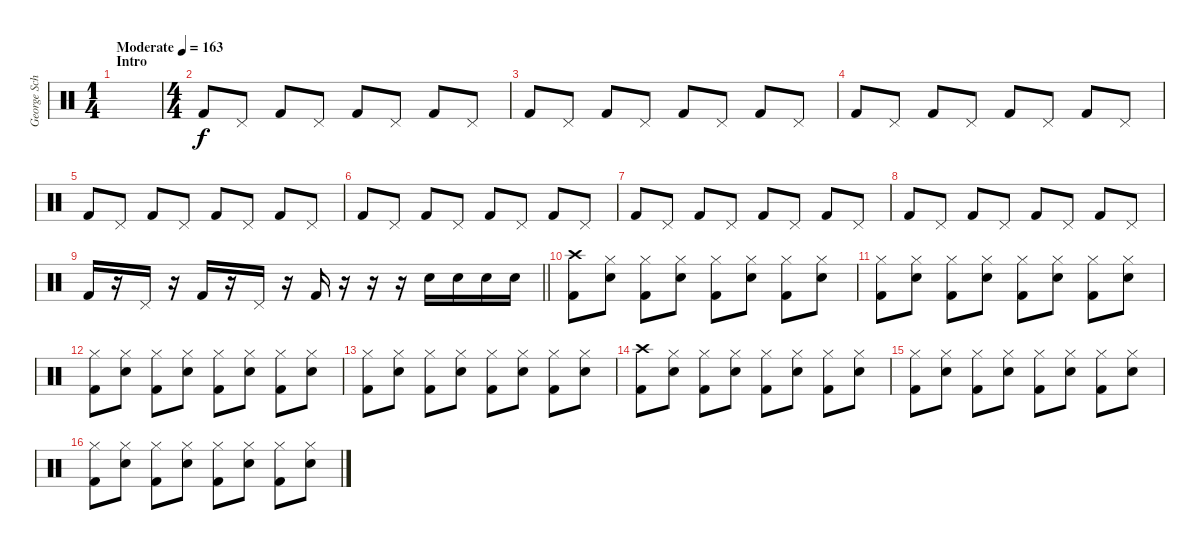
\track ("George Schwindt" "George Sch") {instrument percussion}
\staff {score}
\articulation defaults
\ts (1 4)
\section ("" "Intro")
\tempo (163 "Moderate")
\clef neutral
\ks c
|
\ts (4 4)
"Kick (hit) 2".8 "Pedal Hi-Hat (hit)".8 "Kick (hit) 2".8 "Pedal Hi-Hat (hit)".8 "Kick (hit) 2".8 "Pedal Hi-Hat (hit)".8 "Kick (hit) 2".8 "Pedal Hi-Hat (hit)".8 |
"Kick (hit) 2".8 "Pedal Hi-Hat (hit)".8 "Kick (hit) 2".8 "Pedal Hi-Hat (hit)".8 "Kick (hit) 2".8 "Pedal Hi-Hat (hit)".8 "Kick (hit) 2".8 "Pedal Hi-Hat (hit)".8 |
"Kick (hit) 2".8 "Pedal Hi-Hat (hit)".8 "Kick (hit) 2".8 "Pedal Hi-Hat (hit)".8 "Kick (hit) 2".8 "Pedal Hi-Hat (hit)".8 "Kick (hit) 2".8 "Pedal Hi-Hat (hit)".8 |
"Kick (hit) 2".8 "Pedal Hi-Hat (hit)".8 "Kick (hit) 2".8 "Pedal Hi-Hat (hit)".8 "Kick (hit) 2".8 "Pedal Hi-Hat (hit)".8 "Kick (hit) 2".8 "Pedal Hi-Hat (hit)".8 |
"Kick (hit) 2".8 "Pedal Hi-Hat (hit)".8 "Kick (hit) 2".8 "Pedal Hi-Hat (hit)".8 "Kick (hit) 2".8 "Pedal Hi-Hat (hit)".8 "Kick (hit) 2".8 "Pedal Hi-Hat (hit)".8 |
"Kick (hit) 2".8 "Pedal Hi-Hat (hit)".8 "Kick (hit) 2".8 "Pedal Hi-Hat (hit)".8 "Kick (hit) 2".8 "Pedal Hi-Hat (hit)".8 "Kick (hit) 2".8 "Pedal Hi-Hat (hit)".8 |
"Kick (hit) 2".8 "Pedal Hi-Hat (hit)".8 "Kick (hit) 2".8 "Pedal Hi-Hat (hit)".8 "Kick (hit) 2".8 "Pedal Hi-Hat (hit)".8 "Kick (hit) 2".8 "Pedal Hi-Hat (hit)".8 |
\barLineRight lightlight "Kick (hit) 2".16
r.16 "Pedal Hi-Hat (hit)".16 r.16 "Kick (hit) 2".16 r.16 "Pedal Hi-Hat (hit)".16 r.16 "Kick (hit) 2".16 r.16 r.16 r.16 "Snare (hit) 2".16 "Snare (hit) 2".16 "Snare (hit) 2".16 "Snare (hit) 2".16 |
("Crash high (hit)" "Kick (hit) 2").8 ("Hi-Hat (closed)" "Snare (hit) 2").8 ("Hi-Hat (closed)" "Kick (hit) 2").8 ("Hi-Hat (closed)" "Snare (hit) 2").8 ("Hi-Hat (closed)" "Kick (hit) 2").8 ("Hi-Hat (closed)" "Snare (hit) 2").8 ("Hi-Hat (closed)" "Kick (hit) 2").8 ("Hi-Hat (closed)" "Snare (hit) 2").8 |
("Hi-Hat (closed)" "Kick (hit) 2").8 ("Hi-Hat (closed)" "Snare (hit) 2").8 ("Hi-Hat (closed)" "Kick (hit) 2").8 ("Hi-Hat (closed)" "Snare (hit) 2").8 ("Hi-Hat (closed)" "Kick (hit) 2").8 ("Hi-Hat (closed)" "Snare (hit) 2").8 ("Hi-Hat (closed)" "Kick (hit) 2").8 ("Hi-Hat (closed)" "Snare (hit) 2").8 |
("Hi-Hat (closed)" "Kick (hit) 2").8 ("Hi-Hat (closed)" "Snare (hit) 2").8 ("Hi-Hat (closed)" "Kick (hit) 2").8 ("Hi-Hat (closed)" "Snare (hit) 2").8 ("Hi-Hat (closed)" "Kick (hit) 2").8 ("Hi-Hat (closed)" "Snare (hit) 2").8 ("Hi-Hat (closed)" "Kick (hit) 2").8 ("Hi-Hat (closed)" "Snare (hit) 2").8 |
("Hi-Hat (closed)" "Kick (hit) 2").8 ("Hi-Hat (closed)" "Snare (hit) 2").8 ("Hi-Hat (closed)" "Kick (hit) 2").8 ("Hi-Hat (closed)" "Snare (hit) 2").8 ("Hi-Hat (closed)" "Kick (hit) 2").8 ("Hi-Hat (closed)" "Snare (hit) 2").8 ("Hi-Hat (closed)" "Kick (hit) 2").8 ("Hi-Hat (closed)" "Snare (hit) 2").8 |
("Crash high (hit)" "Kick (hit) 2").8 ("Hi-Hat (closed)" "Snare (hit) 2").8 ("Hi-Hat (closed)" "Kick (hit) 2").8 ("Hi-Hat (closed)" "Snare (hit) 2").8 ("Hi-Hat (closed)" "Kick (hit) 2").8 ("Hi-Hat (closed)" "Snare (hit) 2").8 ("Hi-Hat (closed)" "Kick (hit) 2").8 ("Hi-Hat (closed)" "Snare (hit) 2").8 |
("Hi-Hat (closed)" "Kick (hit) 2").8 ("Hi-Hat (closed)" "Snare (hit) 2").8 ("Hi-Hat (closed)" "Kick (hit) 2").8 ("Hi-Hat (closed)" "Snare (hit) 2").8 ("Hi-Hat (closed)" "Kick (hit) 2").8 ("Hi-Hat (closed)" "Snare (hit) 2").8 ("Hi-Hat (closed)" "Kick (hit) 2").8 ("Hi-Hat (closed)" "Snare (hit) 2").8 |
("Hi-Hat (closed)" "Kick (hit) 2").8 ("Hi-Hat (closed)" "Snare (hit) 2").8 ("Hi-Hat (closed)" "Kick (hit) 2").8 ("Hi-Hat (closed)" "Snare (hit) 2").8 ("Hi-Hat (closed)" "Kick (hit) 2").8 ("Hi-Hat (closed)" "Snare (hit) 2").8 ("Hi-Hat (closed)" "Kick (hit) 2").8 ("Hi-Hat (closed)" "Snare (hit) 2").8
